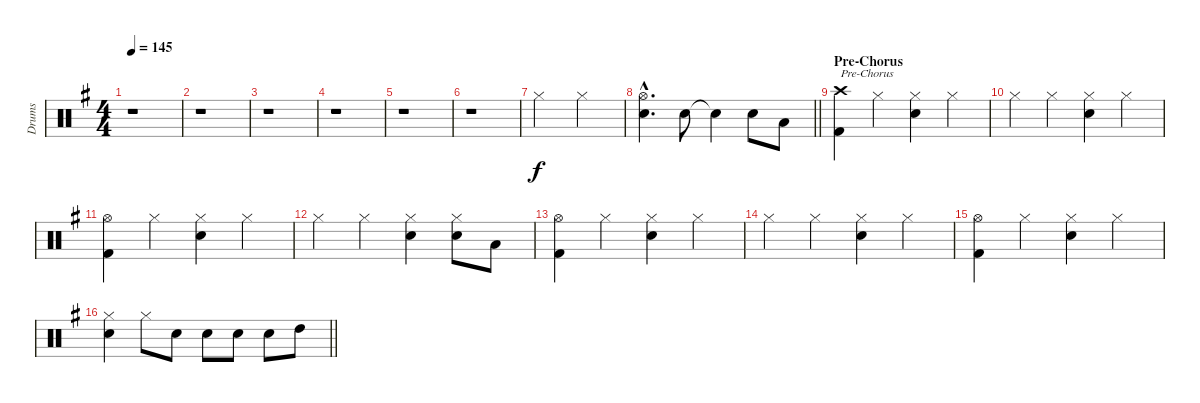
\track ("Drums" "Drums") {instrument percussion}
\staff {score}
\articulation defaults
\ts (4 4)
\tempo 145
\clef neutral
\ks g
r.1{dy f} |
r.1 |
r.1 |
r.1 |
r.1 |
r.1 |
"Hi-Hat (closed)".2 "Hi-Hat (closed)".2 |
\barLineRight lightlight
("Hi-Hat (open)"{hac} "Electric Snare (hit)"{hac}).4{d} "Electric Snare (hit)".8 "Snare (hit)"{t}.4 "Electric Snare (hit)".8 "Low Tom (hit)".8 |
\section ("" "Pre-Chorus")
("Crash high (hit)" "Kick (hit) 2").4{txt "Pre-Chorus"} "Hi-Hat (closed)".4 ("Hi-Hat (closed)" "Snare (hit) 2").4 "Hi-Hat (closed)".4 |
"Hi-Hat (closed)".4 "Hi-Hat (closed)".4 ("Hi-Hat (closed)" "Snare (hit) 2").4 "Hi-Hat (closed)".4 |
("Hi-Hat (open)" "Kick (hit) 2").4 "Hi-Hat (closed)".4 ("Hi-Hat (closed)" "Snare (hit) 2").4 "Hi-Hat (closed)".4 |
"Hi-Hat (closed)".4 "Hi-Hat (closed)".4 ("Hi-Hat (closed)" "Snare (hit) 2").4 ("Hi-Hat (closed)" "Snare (hit) 2").8 "Low Tom (hit)".8 |
("Hi-Hat (open)" "Kick (hit) 2").4 "Hi-Hat (closed)".4 ("Hi-Hat (closed)" "Snare (hit) 2").4 "Hi-Hat (closed)".4 |
"Hi-Hat (closed)".4 "Hi-Hat (closed)".4 ("Hi-Hat (closed)" "Snare (hit) 2").4 "Hi-Hat (closed)".4 |
("Hi-Hat (open)" "Kick (hit) 2").4 "Hi-Hat (closed)".4 ("Hi-Hat (closed)" "Snare (hit) 2").4 "Hi-Hat (closed)".4 |
\barLineRight lightlight
("Hi-Hat (closed)" "Electric Snare (hit)").4 "Hi-Hat (closed)".8 "Electric Snare (hit)".8 "Electric Snare (hit)".8 "Snare (hit) 2".8 "Snare (hit) 2".8 "High Tom (hit)".8
